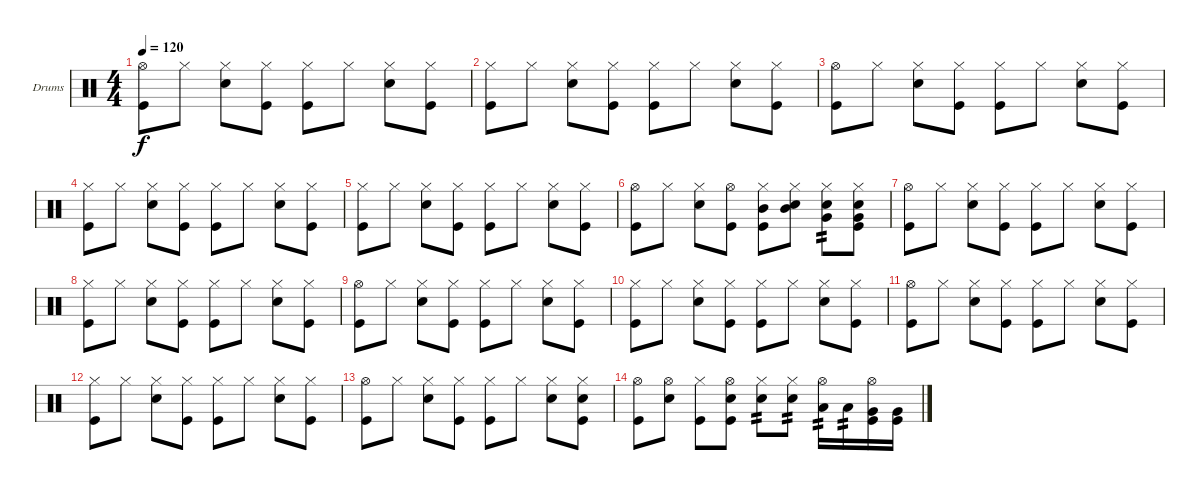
\defaultSystemsLayout 4
\bracketExtendMode groupsimilarinstruments
\firstSystemTrackNameOrientation horizontal
\otherSystemsTrackNameOrientation horizontal
\track ("Drumkit" "Drums") {instrument percussion}
\staff {score}
\articulation defaults
\ts (4 4)
\tempo 120
\clef neutral
\ks c
("Kick (hit)" "Hi-Hat (open)").8{dy f} "Hi-Hat (closed)".8 ("Snare (hit) 2" "Hi-Hat (closed)").8 ("Kick (hit)" "Hi-Hat (closed)").8 ("Kick (hit)" "Hi-Hat (closed)").8 "Hi-Hat (closed)".8 ("Snare (hit) 2" "Hi-Hat (closed)").8 ("Kick (hit)" "Hi-Hat (closed)").8 |
("Kick (hit)" "Hi-Hat (closed)").8 "Hi-Hat (closed)".8 ("Snare (hit) 2" "Hi-Hat (closed)").8 ("Kick (hit)" "Hi-Hat (closed)").8 ("Kick (hit)" "Hi-Hat (closed)").8 "Hi-Hat (closed)".8 ("Snare (hit) 2" "Hi-Hat (closed)").8 ("Kick (hit)" "Hi-Hat (closed)").8 |
("Kick (hit)" "Hi-Hat (open)").8 "Hi-Hat (closed)".8 ("Snare (hit) 2" "Hi-Hat (closed)").8 ("Kick (hit)" "Hi-Hat (closed)").8 ("Kick (hit)" "Hi-Hat (closed)").8 "Hi-Hat (closed)".8 ("Snare (hit) 2" "Hi-Hat (closed)").8 ("Kick (hit)" "Hi-Hat (closed)").8 |
("Kick (hit)" "Hi-Hat (closed)").8 "Hi-Hat (closed)".8 ("Snare (hit) 2" "Hi-Hat (closed)").8 ("Kick (hit)" "Hi-Hat (closed)").8 ("Kick (hit)" "Hi-Hat (closed)").8 "Hi-Hat (closed)".8 ("Snare (hit) 2" "Hi-Hat (closed)").8 ("Kick (hit)" "Hi-Hat (closed)").8 |
("Kick (hit)" "Hi-Hat (closed)").8 "Hi-Hat (closed)".8 ("Snare (hit) 2" "Hi-Hat (closed)").8 ("Kick (hit)" "Hi-Hat (closed)").8 ("Kick (hit)" "Hi-Hat (closed)").8 "Hi-Hat (closed)".8 ("Snare (hit) 2" "Hi-Hat (closed)").8 ("Kick (hit)" "Hi-Hat (closed)").8 |
("Kick (hit)" "Hi-Hat (open)").8 "Hi-Hat (closed)".8 ("Snare (hit) 2" "Hi-Hat (closed)").8 ("Kick (hit)" "Hi-Hat (open)").8 ("Kick (hit)" "Hi-Hat (closed)" "Mid Tom (hit)").8 ("Hi-Hat (closed)" "Mid Tom (hit)" "Snare (hit) 2").8 ("Hi-Hat (closed)" "Very Low Tom (hit)" "Snare (hit) 2").8{tp 2} ("Kick (hit)" "Hi-Hat (closed)" "Very Low Tom (hit)" "Snare (hit) 2").8 |
("Kick (hit)" "Hi-Hat (open)").8 "Hi-Hat (closed)".8 ("Snare (hit) 2" "Hi-Hat (closed)").8 ("Kick (hit)" "Hi-Hat (closed)").8 ("Kick (hit)" "Hi-Hat (closed)").8 "Hi-Hat (closed)".8 ("Snare (hit) 2" "Hi-Hat (closed)").8 ("Kick (hit)" "Hi-Hat (closed)").8 |
("Kick (hit)" "Hi-Hat (closed)").8 "Hi-Hat (closed)".8 ("Snare (hit) 2" "Hi-Hat (closed)").8 ("Kick (hit)" "Hi-Hat (closed)").8 ("Kick (hit)" "Hi-Hat (closed)").8 "Hi-Hat (closed)".8 ("Snare (hit) 2" "Hi-Hat (closed)").8 ("Kick (hit)" "Hi-Hat (closed)").8 |
("Kick (hit)" "Hi-Hat (open)").8 "Hi-Hat (closed)".8 ("Snare (hit) 2" "Hi-Hat (closed)").8 ("Kick (hit)" "Hi-Hat (closed)").8 ("Kick (hit)" "Hi-Hat (closed)").8 "Hi-Hat (closed)".8 ("Snare (hit) 2" "Hi-Hat (closed)").8 ("Kick (hit)" "Hi-Hat (closed)").8 |
("Kick (hit)" "Hi-Hat (closed)").8 "Hi-Hat (closed)".8 ("Snare (hit) 2" "Hi-Hat (closed)").8 ("Kick (hit)" "Hi-Hat (closed)").8 ("Kick (hit)" "Hi-Hat (closed)").8 "Hi-Hat (closed)".8 ("Snare (hit) 2" "Hi-Hat (closed)").8 ("Kick (hit)" "Hi-Hat (closed)").8 |
("Kick (hit)" "Hi-Hat (open)").8 "Hi-Hat (closed)".8 ("Snare (hit) 2" "Hi-Hat (closed)").8 ("Kick (hit)" "Hi-Hat (closed)").8 ("Kick (hit)" "Hi-Hat (closed)").8 "Hi-Hat (closed)".8 ("Snare (hit) 2" "Hi-Hat (closed)").8 ("Kick (hit)" "Hi-Hat (closed)").8 |
("Kick (hit)" "Hi-Hat (closed)").8 "Hi-Hat (closed)".8 ("Snare (hit) 2" "Hi-Hat (closed)").8 ("Kick (hit)" "Hi-Hat (closed)").8 ("Kick (hit)" "Hi-Hat (closed)").8 "Hi-Hat (closed)".8 ("Snare (hit) 2" "Hi-Hat (closed)").8 ("Kick (hit)" "Hi-Hat (closed)").8 |
("Kick (hit)" "Hi-Hat (open)").8 "Hi-Hat (closed)".8 ("Snare (hit) 2" "Hi-Hat (closed)").8 ("Kick (hit)" "Hi-Hat (closed)").8 ("Kick (hit)" "Hi-Hat (closed)").8 "Hi-Hat (closed)".8 ("Snare (hit) 2" "Hi-Hat (closed)").8 ("Kick (hit)" "Hi-Hat (closed)" "Snare (hit) 2").8 |
("Kick (hit)" "Hi-Hat (open)").8 ("Hi-Hat (open)" "Snare (hit) 2").8 ("Hi-Hat (closed)" "Kick (hit)").8 ("Kick (hit)" "Hi-Hat (open)" "Snare (hit) 2").8 ("Hi-Hat (closed)" "Snare (hit) 2").8{tp 2} ("Hi-Hat (closed)" "Snare (hit) 2").8{tp 2} ("Hi-Hat (open)" "Low Tom (hit)").16{tp 2} "Low Tom (hit)".16{tp 2} ("Hi-Hat (open)" "Kick (hit)" "Very Low Tom (hit)").16 ("Very Low Tom (hit)" "Kick (hit)").16
